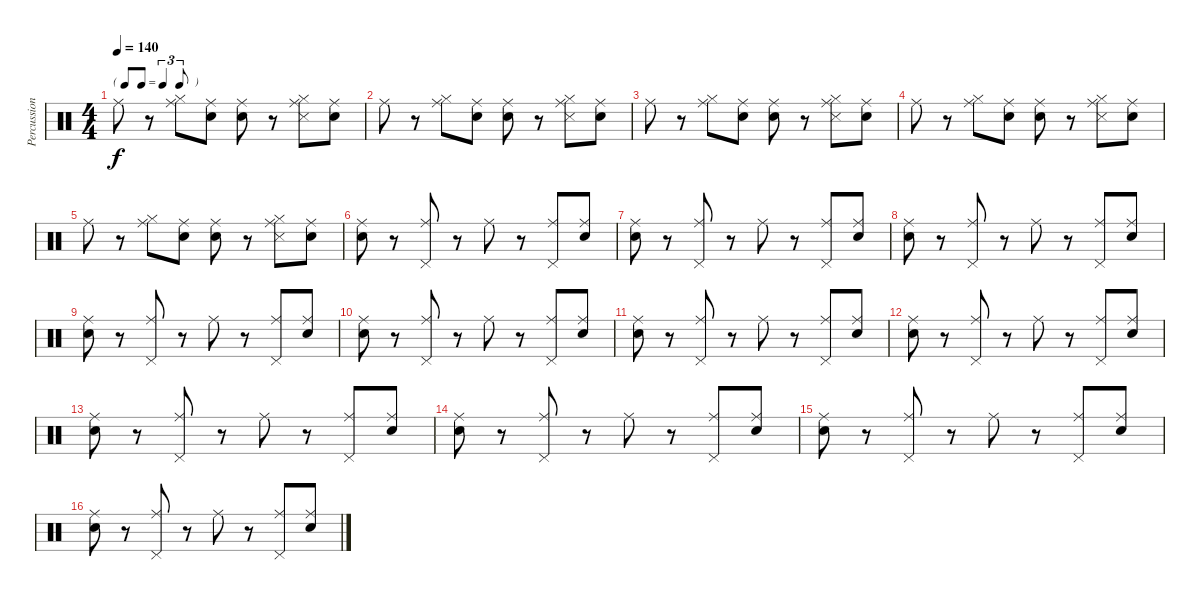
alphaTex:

\track ("Percussions" "Percussion") {instrument percussion}
\staff {score}
\articulation defaults
\ts (4 4)
\tf triplet8th
\tempo 140
\clef neutral
\ks c "Ride (middle)".8{dy f}
r.8 ("Hi-Hat (closed)" "Ride (middle)").8 ("Snare (hit)" "Ride (middle)").8 ("Snare (hit)" "Ride (middle)").8 r.8 ("Hi-Hat (closed)" "Snare (side stick) 3" "Ride (middle)").8 ("Snare (hit)" "Ride (middle)").8 |
"Ride (middle)".8 r.8 ("Hi-Hat (closed)" "Ride (middle)").8 ("Snare (hit)" "Ride (middle)").8 ("Snare (hit)" "Ride (middle)").8 r.8 ("Hi-Hat (closed)" "Snare (side stick) 3" "Ride (middle)").8 ("Snare (hit)" "Ride (middle)").8 |
"Ride (middle)".8 r.8 ("Hi-Hat (closed)" "Ride (middle)").8 ("Snare (hit)" "Ride (middle)").8 ("Snare (hit)" "Ride (middle)").8 r.8 ("Hi-Hat (closed)" "Snare (side stick) 3" "Ride (middle)").8 ("Snare (hit)" "Ride (middle)").8 |
"Ride (middle)".8 r.8 ("Hi-Hat (closed)" "Ride (middle)").8 ("Snare (hit)" "Ride (middle)").8 ("Snare (hit)" "Ride (middle)").8 r.8 ("Hi-Hat (closed)" "Snare (side stick) 3" "Ride (middle)").8 ("Snare (hit)" "Ride (middle)").8 |
"Ride (middle)".8 r.8 ("Hi-Hat (closed)" "Ride (middle)").8 ("Snare (hit)" "Ride (middle)").8 ("Snare (hit)" "Ride (middle)").8 r.8 ("Hi-Hat (closed)" "Snare (side stick) 3" "Ride (middle)").8 ("Snare (hit)" "Ride (middle)").8 |
("Snare (hit)" "Ride (middle)").8 r.8 ("Pedal Hi-Hat (hit)" "Ride (middle)").8 r.8 "Ride (middle)".8 r.8 ("Pedal Hi-Hat (hit)" "Ride (middle)").8 ("Snare (hit)" "Ride (middle)").8 |
("Snare (hit)" "Ride (middle)").8 r.8 ("Pedal Hi-Hat (hit)" "Ride (middle)").8 r.8 "Ride (middle)".8 r.8 ("Pedal Hi-Hat (hit)" "Ride (middle)").8 ("Snare (hit)" "Ride (middle)").8 |
("Snare (hit)" "Ride (middle)").8 r.8 ("Pedal Hi-Hat (hit)" "Ride (middle)").8 r.8 "Ride (middle)".8 r.8 ("Pedal Hi-Hat (hit)" "Ride (middle)").8 ("Snare (hit)" "Ride (middle)").8 |
("Snare (hit)" "Ride (middle)").8 r.8 ("Pedal Hi-Hat (hit)" "Ride (middle)").8 r.8 "Ride (middle)".8 r.8 ("Pedal Hi-Hat (hit)" "Ride (middle)").8 ("Snare (hit)" "Ride (middle)").8 |
("Snare (hit)" "Ride (middle)").8 r.8 ("Pedal Hi-Hat (hit)" "Ride (middle)").8 r.8 "Ride (middle)".8 r.8 ("Pedal Hi-Hat (hit)" "Ride (middle)").8 ("Snare (hit)" "Ride (middle)").8 |
("Snare (hit)" "Ride (middle)").8 r.8 ("Pedal Hi-Hat (hit)" "Ride (middle)").8 r.8 "Ride (middle)".8 r.8 ("Pedal Hi-Hat (hit)" "Ride (middle)").8 ("Snare (hit)" "Ride (middle)").8 |
("Snare (hit)" "Ride (middle)").8 r.8 ("Pedal Hi-Hat (hit)" "Ride (middle)").8 r.8 "Ride (middle)".8 r.8 ("Pedal Hi-Hat (hit)" "Ride (middle)").8 ("Snare (hit)" "Ride (middle)").8 |
("Snare (hit)" "Ride (middle)").8 r.8 ("Pedal Hi-Hat (hit)" "Ride (middle)").8 r.8 "Ride (middle)".8 r.8 ("Pedal Hi-Hat (hit)" "Ride (middle)").8 ("Snare (hit)" "Ride (middle)").8 |
("Snare (hit)" "Ride (middle)").8 r.8 ("Pedal Hi-Hat (hit)" "Ride (middle)").8 r.8 "Ride (middle)".8 r.8 ("Pedal Hi-Hat (hit)" "Ride (middle)").8 ("Snare (hit)" "Ride (middle)").8 |
("Snare (hit)" "Ride (middle)").8 r.8 ("Pedal Hi-Hat (hit)" "Ride (middle)").8 r.8 "Ride (middle)".8 r.8 ("Pedal Hi-Hat (hit)" "Ride (middle)").8 ("Snare (hit)" "Ride (middle)").8 |
("Snare (hit)" "Ride (middle)").8 r.8 ("Pedal Hi-Hat (hit)" "Ride (middle)").8 r.8 "Ride (middle)".8 r.8 ("Pedal Hi-Hat (hit)" "Ride (middle)").8 ("Snare (hit)" "Ride (middle)").8
